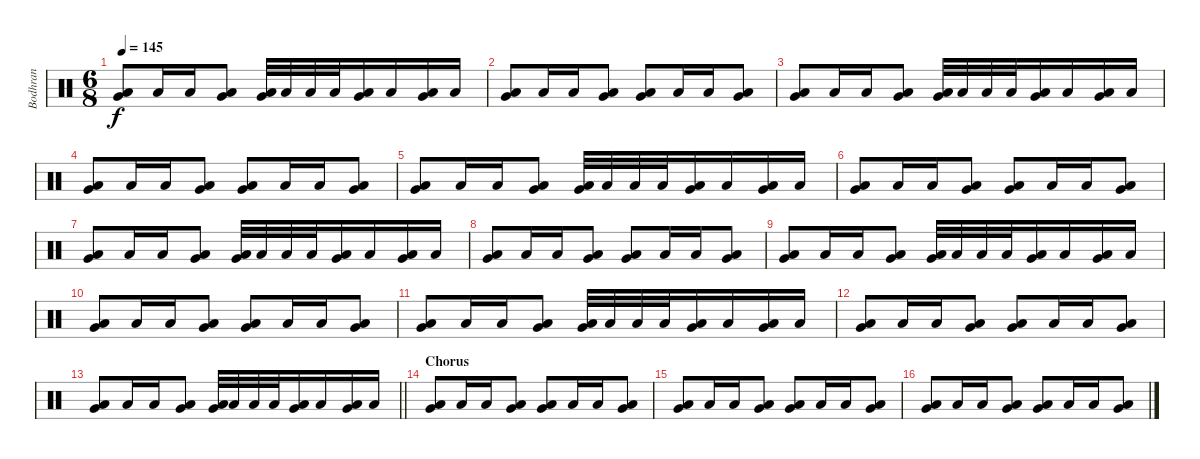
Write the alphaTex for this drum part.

\track ("Bodhran" "Bodhran") {instrument percussion}
\staff {score}
\articulation defaults
\ts (6 8)
\tempo 145
\clef neutral
\ks c
("Very Low Tom (hit)" "Low Floor Tom (hit)").8{dy f} "Low Floor Tom (hit)".16 "Low Floor Tom (hit)".16 ("Very Low Tom (hit)" "Low Floor Tom (hit)").8 ("Very Low Tom (hit)" "Low Floor Tom (hit)").32 "Low Floor Tom (hit)".32 "Low Floor Tom (hit)".32 "Low Floor Tom (hit)".32 ("Very Low Tom (hit)" "Low Floor Tom (hit)").16 "Low Floor Tom (hit)".16 ("Very Low Tom (hit)" "Low Floor Tom (hit)").16 "Low Floor Tom (hit)".16 |
("Very Low Tom (hit)" "Low Floor Tom (hit)").8 "Low Floor Tom (hit)".16 "Low Floor Tom (hit)".16 ("Very Low Tom (hit)" "Low Floor Tom (hit)").8 ("Very Low Tom (hit)" "Low Floor Tom (hit)").8 "Low Floor Tom (hit)".16 "Low Floor Tom (hit)".16 ("Very Low Tom (hit)" "Low Floor Tom (hit)").8 |
("Very Low Tom (hit)" "Low Floor Tom (hit)").8 "Low Floor Tom (hit)".16 "Low Floor Tom (hit)".16 ("Very Low Tom (hit)" "Low Floor Tom (hit)").8 ("Very Low Tom (hit)" "Low Floor Tom (hit)").32 "Low Floor Tom (hit)".32 "Low Floor Tom (hit)".32 "Low Floor Tom (hit)".32 ("Very Low Tom (hit)" "Low Floor Tom (hit)").16 "Low Floor Tom (hit)".16 ("Very Low Tom (hit)" "Low Floor Tom (hit)").16 "Low Floor Tom (hit)".16 |
("Very Low Tom (hit)" "Low Floor Tom (hit)").8 "Low Floor Tom (hit)".16 "Low Floor Tom (hit)".16 ("Very Low Tom (hit)" "Low Floor Tom (hit)").8 ("Very Low Tom (hit)" "Low Floor Tom (hit)").8 "Low Floor Tom (hit)".16 "Low Floor Tom (hit)".16 ("Very Low Tom (hit)" "Low Floor Tom (hit)").8 |
("Very Low Tom (hit)" "Low Floor Tom (hit)").8 "Low Floor Tom (hit)".16 "Low Floor Tom (hit)".16 ("Very Low Tom (hit)" "Low Floor Tom (hit)").8 ("Very Low Tom (hit)" "Low Floor Tom (hit)").32 "Low Floor Tom (hit)".32 "Low Floor Tom (hit)".32 "Low Floor Tom (hit)".32 ("Very Low Tom (hit)" "Low Floor Tom (hit)").16 "Low Floor Tom (hit)".16 ("Very Low Tom (hit)" "Low Floor Tom (hit)").16 "Low Floor Tom (hit)".16 |
("Very Low Tom (hit)" "Low Floor Tom (hit)").8 "Low Floor Tom (hit)".16 "Low Floor Tom (hit)".16 ("Very Low Tom (hit)" "Low Floor Tom (hit)").8 ("Very Low Tom (hit)" "Low Floor Tom (hit)").8 "Low Floor Tom (hit)".16 "Low Floor Tom (hit)".16 ("Very Low Tom (hit)" "Low Floor Tom (hit)").8 |
("Very Low Tom (hit)" "Low Floor Tom (hit)").8 "Low Floor Tom (hit)".16 "Low Floor Tom (hit)".16 ("Very Low Tom (hit)" "Low Floor Tom (hit)").8 ("Very Low Tom (hit)" "Low Floor Tom (hit)").32 "Low Floor Tom (hit)".32 "Low Floor Tom (hit)".32 "Low Floor Tom (hit)".32 ("Very Low Tom (hit)" "Low Floor Tom (hit)").16 "Low Floor Tom (hit)".16 ("Very Low Tom (hit)" "Low Floor Tom (hit)").16 "Low Floor Tom (hit)".16 |
("Very Low Tom (hit)" "Low Floor Tom (hit)").8 "Low Floor Tom (hit)".16 "Low Floor Tom (hit)".16 ("Very Low Tom (hit)" "Low Floor Tom (hit)").8 ("Very Low Tom (hit)" "Low Floor Tom (hit)").8 "Low Floor Tom (hit)".16 "Low Floor Tom (hit)".16 ("Very Low Tom (hit)" "Low Floor Tom (hit)").8 |
("Very Low Tom (hit)" "Low Floor Tom (hit)").8 "Low Floor Tom (hit)".16 "Low Floor Tom (hit)".16 ("Very Low Tom (hit)" "Low Floor Tom (hit)").8 ("Very Low Tom (hit)" "Low Floor Tom (hit)").32 "Low Floor Tom (hit)".32 "Low Floor Tom (hit)".32 "Low Floor Tom (hit)".32 ("Very Low Tom (hit)" "Low Floor Tom (hit)").16 "Low Floor Tom (hit)".16 ("Very Low Tom (hit)" "Low Floor Tom (hit)").16 "Low Floor Tom (hit)".16 |
("Very Low Tom (hit)" "Low Floor Tom (hit)").8 "Low Floor Tom (hit)".16 "Low Floor Tom (hit)".16 ("Very Low Tom (hit)" "Low Floor Tom (hit)").8 ("Very Low Tom (hit)" "Low Floor Tom (hit)").8 "Low Floor Tom (hit)".16 "Low Floor Tom (hit)".16 ("Very Low Tom (hit)" "Low Floor Tom (hit)").8 |
("Very Low Tom (hit)" "Low Floor Tom (hit)").8 "Low Floor Tom (hit)".16 "Low Floor Tom (hit)".16 ("Very Low Tom (hit)" "Low Floor Tom (hit)").8 ("Very Low Tom (hit)" "Low Floor Tom (hit)").32 "Low Floor Tom (hit)".32 "Low Floor Tom (hit)".32 "Low Floor Tom (hit)".32 ("Very Low Tom (hit)" "Low Floor Tom (hit)").16 "Low Floor Tom (hit)".16 ("Very Low Tom (hit)" "Low Floor Tom (hit)").16 "Low Floor Tom (hit)".16 |
("Very Low Tom (hit)" "Low Floor Tom (hit)").8 "Low Floor Tom (hit)".16 "Low Floor Tom (hit)".16 ("Very Low Tom (hit)" "Low Floor Tom (hit)").8 ("Very Low Tom (hit)" "Low Floor Tom (hit)").8 "Low Floor Tom (hit)".16 "Low Floor Tom (hit)".16 ("Very Low Tom (hit)" "Low Floor Tom (hit)").8 |
\barLineRight lightlight
("Very Low Tom (hit)" "Low Floor Tom (hit)").8 "Low Floor Tom (hit)".16 "Low Floor Tom (hit)".16 ("Very Low Tom (hit)" "Low Floor Tom (hit)").8 ("Very Low Tom (hit)" "Low Floor Tom (hit)").32 "Low Floor Tom (hit)".32 "Low Floor Tom (hit)".32 "Low Floor Tom (hit)".32 ("Very Low Tom (hit)" "Low Floor Tom (hit)").16 "Low Floor Tom (hit)".16 ("Very Low Tom (hit)" "Low Floor Tom (hit)").16 "Low Floor Tom (hit)".16 |
\section ("" "Chorus")
("Very Low Tom (hit)" "Low Floor Tom (hit)").8 "Low Floor Tom (hit)".16 "Low Floor Tom (hit)".16 ("Very Low Tom (hit)" "Low Floor Tom (hit)").8 ("Very Low Tom (hit)" "Low Floor Tom (hit)").8 "Low Floor Tom (hit)".16 "Low Floor Tom (hit)".16 ("Very Low Tom (hit)" "Low Floor Tom (hit)").8 |
("Very Low Tom (hit)" "Low Floor Tom (hit)").8 "Low Floor Tom (hit)".16 "Low Floor Tom (hit)".16 ("Very Low Tom (hit)" "Low Floor Tom (hit)").8 ("Very Low Tom (hit)" "Low Floor Tom (hit)").8 "Low Floor Tom (hit)".16 "Low Floor Tom (hit)".16 ("Very Low Tom (hit)" "Low Floor Tom (hit)").8 |
("Very Low Tom (hit)" "Low Floor Tom (hit)").8 "Low Floor Tom (hit)".16 "Low Floor Tom (hit)".16 ("Very Low Tom (hit)" "Low Floor Tom (hit)").8 ("Very Low Tom (hit)" "Low Floor Tom (hit)").8 "Low Floor Tom (hit)".16 "Low Floor Tom (hit)".16 ("Very Low Tom (hit)" "Low Floor Tom (hit)").8
